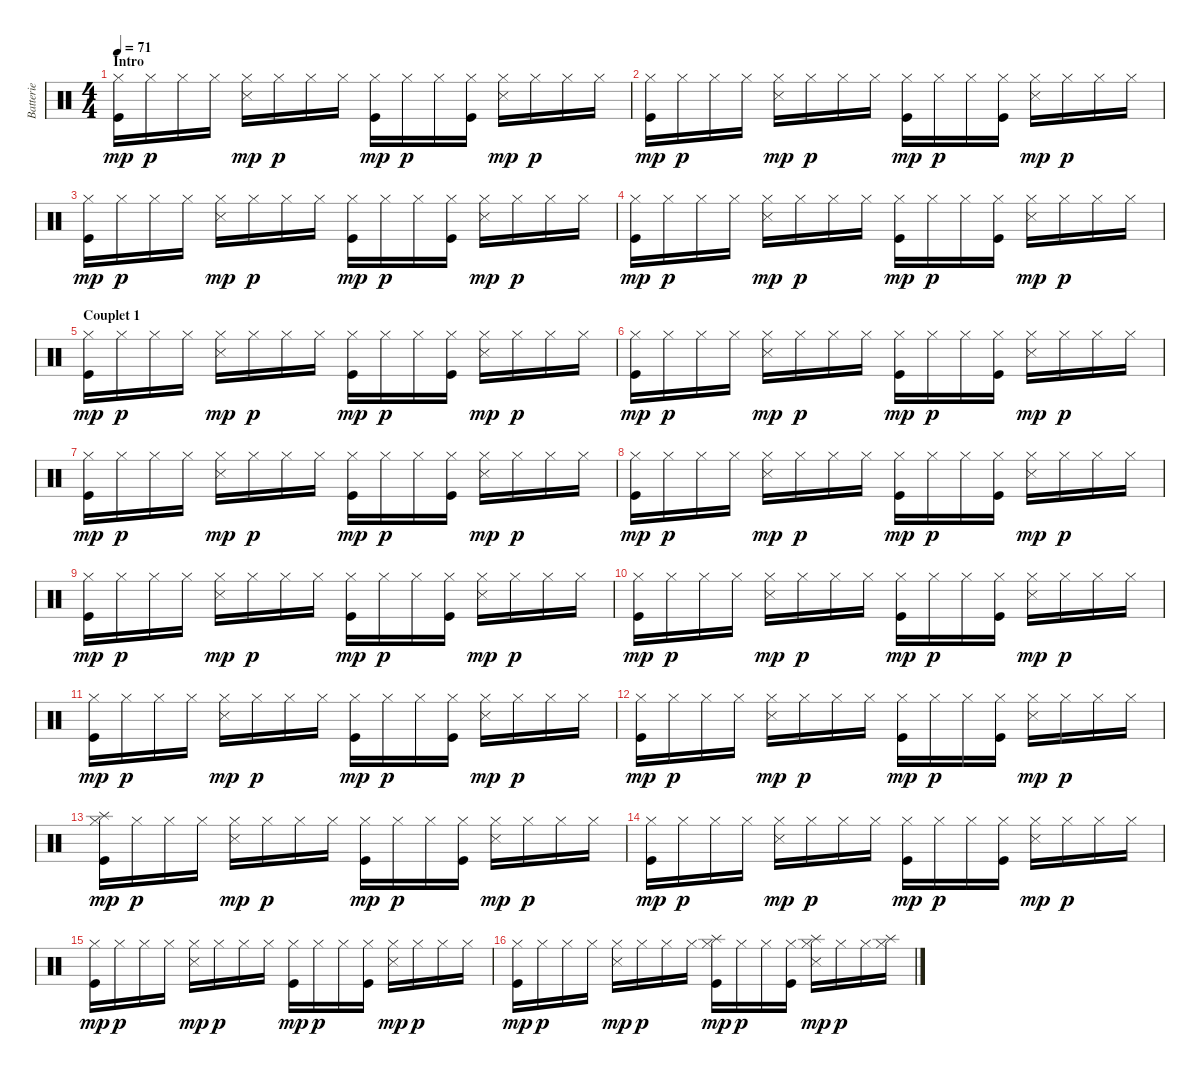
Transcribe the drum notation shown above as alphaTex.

\track ("Batterie" "Batterie") {instrument percussion}
\staff {score}
\articulation defaults
\ts (4 4)
\section ("" "Intro")
\tempo 71
\clef neutral
\ks c
("Hi-Hat (closed)" "Kick (hit)").16{dy mp} "Hi-Hat (closed)".16{dy p} "Hi-Hat (closed)".16 "Hi-Hat (closed)".16 ("Hi-Hat (closed)" "Snare (side stick) 3").16{dy mp} "Hi-Hat (closed)".16{dy p} "Hi-Hat (closed)".16 "Hi-Hat (closed)".16 ("Hi-Hat (closed)" "Kick (hit)").16{dy mp} "Hi-Hat (closed)".16{dy p} "Hi-Hat (closed)".16 ("Hi-Hat (closed)" "Kick (hit)").16 ("Hi-Hat (closed)" "Snare (side stick) 3").16{dy mp} "Hi-Hat (closed)".16{dy p} "Hi-Hat (closed)".16 "Hi-Hat (closed)".16 |
("Hi-Hat (closed)" "Kick (hit)").16{dy mp} "Hi-Hat (closed)".16{dy p} "Hi-Hat (closed)".16 "Hi-Hat (closed)".16 ("Hi-Hat (closed)" "Snare (side stick) 3").16{dy mp} "Hi-Hat (closed)".16{dy p} "Hi-Hat (closed)".16 "Hi-Hat (closed)".16 ("Hi-Hat (closed)" "Kick (hit)").16{dy mp} "Hi-Hat (closed)".16{dy p} "Hi-Hat (closed)".16 ("Hi-Hat (closed)" "Kick (hit)").16 ("Hi-Hat (closed)" "Snare (side stick) 3").16{dy mp} "Hi-Hat (closed)".16{dy p} "Hi-Hat (closed)".16 "Hi-Hat (closed)".16 |
("Hi-Hat (closed)" "Kick (hit)").16{dy mp} "Hi-Hat (closed)".16{dy p} "Hi-Hat (closed)".16 "Hi-Hat (closed)".16 ("Hi-Hat (closed)" "Snare (side stick) 3").16{dy mp} "Hi-Hat (closed)".16{dy p} "Hi-Hat (closed)".16 "Hi-Hat (closed)".16 ("Hi-Hat (closed)" "Kick (hit)").16{dy mp} "Hi-Hat (closed)".16{dy p} "Hi-Hat (closed)".16 ("Hi-Hat (closed)" "Kick (hit)").16 ("Hi-Hat (closed)" "Snare (side stick) 3").16{dy mp} "Hi-Hat (closed)".16{dy p} "Hi-Hat (closed)".16 "Hi-Hat (closed)".16 |
("Hi-Hat (closed)" "Kick (hit)").16{dy mp} "Hi-Hat (closed)".16{dy p} "Hi-Hat (closed)".16 "Hi-Hat (closed)".16 ("Hi-Hat (closed)" "Snare (side stick) 3").16{dy mp} "Hi-Hat (closed)".16{dy p} "Hi-Hat (closed)".16 "Hi-Hat (closed)".16 ("Hi-Hat (closed)" "Kick (hit)").16{dy mp} "Hi-Hat (closed)".16{dy p} "Hi-Hat (closed)".16 ("Hi-Hat (closed)" "Kick (hit)").16 ("Hi-Hat (closed)" "Snare (side stick) 3").16{dy mp} "Hi-Hat (closed)".16{dy p} "Hi-Hat (closed)".16 "Hi-Hat (closed)".16 |
\section ("" "Couplet 1")
("Hi-Hat (closed)" "Kick (hit)").16{dy mp} "Hi-Hat (closed)".16{dy p} "Hi-Hat (closed)".16 "Hi-Hat (closed)".16 ("Hi-Hat (closed)" "Snare (side stick) 3").16{dy mp} "Hi-Hat (closed)".16{dy p} "Hi-Hat (closed)".16 "Hi-Hat (closed)".16 ("Hi-Hat (closed)" "Kick (hit)").16{dy mp} "Hi-Hat (closed)".16{dy p} "Hi-Hat (closed)".16 ("Hi-Hat (closed)" "Kick (hit)").16 ("Hi-Hat (closed)" "Snare (side stick) 3").16{dy mp} "Hi-Hat (closed)".16{dy p} "Hi-Hat (closed)".16 "Hi-Hat (closed)".16 |
("Hi-Hat (closed)" "Kick (hit)").16{dy mp} "Hi-Hat (closed)".16{dy p} "Hi-Hat (closed)".16 "Hi-Hat (closed)".16 ("Hi-Hat (closed)" "Snare (side stick) 3").16{dy mp} "Hi-Hat (closed)".16{dy p} "Hi-Hat (closed)".16 "Hi-Hat (closed)".16 ("Hi-Hat (closed)" "Kick (hit)").16{dy mp} "Hi-Hat (closed)".16{dy p} "Hi-Hat (closed)".16 ("Hi-Hat (closed)" "Kick (hit)").16 ("Hi-Hat (closed)" "Snare (side stick) 3").16{dy mp} "Hi-Hat (closed)".16{dy p} "Hi-Hat (closed)".16 "Hi-Hat (closed)".16 |
("Hi-Hat (closed)" "Kick (hit)").16{dy mp} "Hi-Hat (closed)".16{dy p} "Hi-Hat (closed)".16 "Hi-Hat (closed)".16 ("Hi-Hat (closed)" "Snare (side stick) 3").16{dy mp} "Hi-Hat (closed)".16{dy p} "Hi-Hat (closed)".16 "Hi-Hat (closed)".16 ("Hi-Hat (closed)" "Kick (hit)").16{dy mp} "Hi-Hat (closed)".16{dy p} "Hi-Hat (closed)".16 ("Hi-Hat (closed)" "Kick (hit)").16 ("Hi-Hat (closed)" "Snare (side stick) 3").16{dy mp} "Hi-Hat (closed)".16{dy p} "Hi-Hat (closed)".16 "Hi-Hat (closed)".16 |
("Hi-Hat (closed)" "Kick (hit)").16{dy mp} "Hi-Hat (closed)".16{dy p} "Hi-Hat (closed)".16 "Hi-Hat (closed)".16 ("Hi-Hat (closed)" "Snare (side stick) 3").16{dy mp} "Hi-Hat (closed)".16{dy p} "Hi-Hat (closed)".16 "Hi-Hat (closed)".16 ("Hi-Hat (closed)" "Kick (hit)").16{dy mp} "Hi-Hat (closed)".16{dy p} "Hi-Hat (closed)".16 ("Hi-Hat (closed)" "Kick (hit)").16 ("Hi-Hat (closed)" "Snare (side stick) 3").16{dy mp} "Hi-Hat (closed)".16{dy p} "Hi-Hat (closed)".16 "Hi-Hat (closed)".16 |
("Hi-Hat (closed)" "Kick (hit)").16{dy mp} "Hi-Hat (closed)".16{dy p} "Hi-Hat (closed)".16 "Hi-Hat (closed)".16 ("Hi-Hat (closed)" "Snare (side stick) 3").16{dy mp} "Hi-Hat (closed)".16{dy p} "Hi-Hat (closed)".16 "Hi-Hat (closed)".16 ("Hi-Hat (closed)" "Kick (hit)").16{dy mp} "Hi-Hat (closed)".16{dy p} "Hi-Hat (closed)".16 ("Hi-Hat (closed)" "Kick (hit)").16 ("Hi-Hat (closed)" "Snare (side stick) 3").16{dy mp} "Hi-Hat (closed)".16{dy p} "Hi-Hat (closed)".16 "Hi-Hat (closed)".16 |
("Hi-Hat (closed)" "Kick (hit)").16{dy mp} "Hi-Hat (closed)".16{dy p} "Hi-Hat (closed)".16 "Hi-Hat (closed)".16 ("Hi-Hat (closed)" "Snare (side stick) 3").16{dy mp} "Hi-Hat (closed)".16{dy p} "Hi-Hat (closed)".16 "Hi-Hat (closed)".16 ("Hi-Hat (closed)" "Kick (hit)").16{dy mp} "Hi-Hat (closed)".16{dy p} "Hi-Hat (closed)".16 ("Hi-Hat (closed)" "Kick (hit)").16 ("Hi-Hat (closed)" "Snare (side stick) 3").16{dy mp} "Hi-Hat (closed)".16{dy p} "Hi-Hat (closed)".16 "Hi-Hat (closed)".16 |
("Hi-Hat (closed)" "Kick (hit)").16{dy mp} "Hi-Hat (closed)".16{dy p} "Hi-Hat (closed)".16 "Hi-Hat (closed)".16 ("Hi-Hat (closed)" "Snare (side stick) 3").16{dy mp} "Hi-Hat (closed)".16{dy p} "Hi-Hat (closed)".16 "Hi-Hat (closed)".16 ("Hi-Hat (closed)" "Kick (hit)").16{dy mp} "Hi-Hat (closed)".16{dy p} "Hi-Hat (closed)".16 ("Hi-Hat (closed)" "Kick (hit)").16 ("Hi-Hat (closed)" "Snare (side stick) 3").16{dy mp} "Hi-Hat (closed)".16{dy p} "Hi-Hat (closed)".16 "Hi-Hat (closed)".16 |
("Hi-Hat (closed)" "Kick (hit)").16{dy mp} "Hi-Hat (closed)".16{dy p} "Hi-Hat (closed)".16 "Hi-Hat (closed)".16 ("Hi-Hat (closed)" "Snare (side stick) 3").16{dy mp} "Hi-Hat (closed)".16{dy p} "Hi-Hat (closed)".16 "Hi-Hat (closed)".16 ("Hi-Hat (closed)" "Kick (hit)").16{dy mp} "Hi-Hat (closed)".16{dy p} "Hi-Hat (closed)".16 ("Hi-Hat (closed)" "Kick (hit)").16 ("Hi-Hat (closed)" "Snare (side stick) 3").16{dy mp} "Hi-Hat (closed)".16{dy p} "Hi-Hat (closed)".16 "Hi-Hat (closed)".16 |
("Hi-Hat (closed)" "Splash (hit)" "Kick (hit)").16{dy mp} "Hi-Hat (closed)".16{dy p} "Hi-Hat (closed)".16 "Hi-Hat (closed)".16 ("Hi-Hat (closed)" "Snare (side stick) 3").16{dy mp} "Hi-Hat (closed)".16{dy p} "Hi-Hat (closed)".16 "Hi-Hat (closed)".16 ("Hi-Hat (closed)" "Kick (hit)").16{dy mp} "Hi-Hat (closed)".16{dy p} "Hi-Hat (closed)".16 ("Hi-Hat (closed)" "Kick (hit)").16 ("Hi-Hat (closed)" "Snare (side stick) 3").16{dy mp} "Hi-Hat (closed)".16{dy p} "Hi-Hat (closed)".16 "Hi-Hat (closed)".16 |
("Hi-Hat (closed)" "Kick (hit)").16{dy mp} "Hi-Hat (closed)".16{dy p} "Hi-Hat (closed)".16 "Hi-Hat (closed)".16 ("Hi-Hat (closed)" "Snare (side stick) 3").16{dy mp} "Hi-Hat (closed)".16{dy p} "Hi-Hat (closed)".16 "Hi-Hat (closed)".16 ("Hi-Hat (closed)" "Kick (hit)").16{dy mp} "Hi-Hat (closed)".16{dy p} "Hi-Hat (closed)".16 ("Hi-Hat (closed)" "Kick (hit)").16 ("Hi-Hat (closed)" "Snare (side stick) 3").16{dy mp} "Hi-Hat (closed)".16{dy p} "Hi-Hat (closed)".16 "Hi-Hat (closed)".16 |
("Hi-Hat (closed)" "Kick (hit)").16{dy mp} "Hi-Hat (closed)".16{dy p} "Hi-Hat (closed)".16 "Hi-Hat (closed)".16 ("Hi-Hat (closed)" "Snare (side stick) 3").16{dy mp} "Hi-Hat (closed)".16{dy p} "Hi-Hat (closed)".16 "Hi-Hat (closed)".16 ("Hi-Hat (closed)" "Kick (hit)").16{dy mp} "Hi-Hat (closed)".16{dy p} "Hi-Hat (closed)".16 ("Hi-Hat (closed)" "Kick (hit)").16 ("Hi-Hat (closed)" "Snare (side stick) 3").16{dy mp} "Hi-Hat (closed)".16{dy p} "Hi-Hat (closed)".16 "Hi-Hat (closed)".16 |
("Hi-Hat (closed)" "Kick (hit)").16{dy mp} "Hi-Hat (closed)".16{dy p} "Hi-Hat (closed)".16 "Hi-Hat (closed)".16 ("Hi-Hat (closed)" "Snare (side stick) 3").16{dy mp} "Hi-Hat (closed)".16{dy p} "Hi-Hat (closed)".16 "Hi-Hat (closed)".16 ("Hi-Hat (closed)" "Splash (hit)" "Kick (hit)").16{dy mp} "Hi-Hat (closed)".16{dy p} "Hi-Hat (closed)".16 ("Hi-Hat (closed)" "Kick (hit)").16 ("Hi-Hat (closed)" "Splash (hit)" "Snare (side stick) 3").16{dy mp} "Hi-Hat (closed)".16{dy p} "Hi-Hat (closed)".16 ("Hi-Hat (closed)" "Splash (hit)").16
